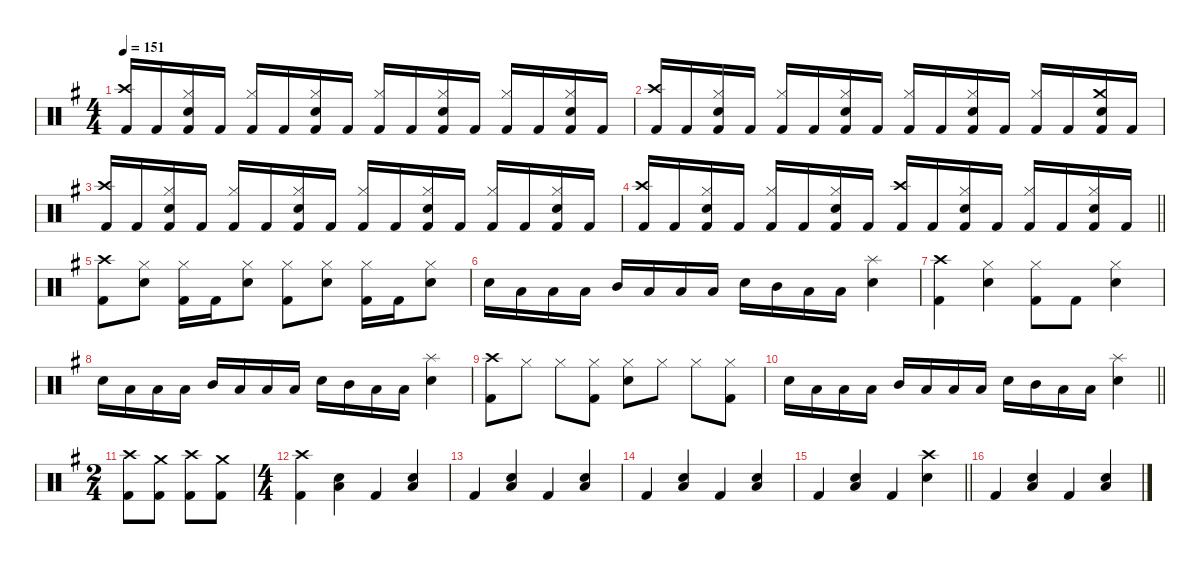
\defaultSystemsLayout 4
\hideDynamics
\bracketExtendMode nobrackets
\singleTrackTrackNamePolicy hidden
\multiTrackTrackNamePolicy hidden
\otherSystemsTrackNameOrientation horizontal
\track ("Lars Ulrich" "drm.") {instrument percussion}
\staff {score}
\articulation defaults
\ts (4 4)
\tempo 151
\clef neutral
\ks eminor
("Crash high (hit)"{acc forcenatural} "Kick (hit) 2"{acc forcenatural}).16{dy f beam Up} "Kick (hit) 2"{acc forcenatural}.16{beam Up} ("Hi-Hat (closed)"{acc forcenatural} "Snare (hit) 2"{acc forcenatural} "Kick (hit) 2"{acc forcenatural}).16{beam Up} "Kick (hit) 2"{acc forcenatural}.16{beam Up} ("Hi-Hat (closed)"{acc forcenatural} "Kick (hit) 2"{acc forcenatural}).16{beam Up} "Kick (hit) 2"{acc forcenatural}.16{beam Up} ("Hi-Hat (closed)"{acc forcenatural} "Snare (hit) 2"{acc forcenatural} "Kick (hit) 2"{acc forcenatural}).16{beam Up} "Kick (hit) 2"{acc forcenatural}.16{beam Up} ("Hi-Hat (closed)"{acc forcenatural} "Kick (hit) 2"{acc forcenatural}).16{beam Up} "Kick (hit) 2"{acc forcenatural}.16{beam Up} ("Hi-Hat (closed)"{acc forcenatural} "Snare (hit) 2"{acc forcenatural} "Kick (hit) 2"{acc forcenatural}).16{beam Up} "Kick (hit) 2"{acc forcenatural}.16{beam Up} ("Hi-Hat (closed)"{acc forcenatural} "Kick (hit) 2"{acc forcenatural}).16{beam Up} "Kick (hit) 2"{acc forcenatural}.16{beam Up} ("Hi-Hat (closed)"{acc forcenatural} "Snare (hit) 2"{acc forcenatural} "Kick (hit) 2"{acc forcenatural}).16{beam Up} "Kick (hit) 2"{acc forcenatural}.16{beam Up} |
("Crash high (hit)"{acc forcenatural} "Kick (hit) 2"{acc forcenatural}).16{beam Up} "Kick (hit) 2"{acc forcenatural}.16{beam Up} ("Hi-Hat (closed)"{acc forcenatural} "Snare (hit) 2"{acc forcenatural} "Kick (hit) 2"{acc forcenatural}).16{beam Up} "Kick (hit) 2"{acc forcenatural}.16{beam Up} ("Hi-Hat (closed)"{acc forcenatural} "Kick (hit) 2"{acc forcenatural}).16{beam Up} "Kick (hit) 2"{acc forcenatural}.16{beam Up} ("Hi-Hat (closed)"{acc forcenatural} "Snare (hit) 2"{acc forcenatural} "Kick (hit) 2"{acc forcenatural}).16{beam Up} "Kick (hit) 2"{acc forcenatural}.16{beam Up} ("Hi-Hat (closed)"{acc forcenatural} "Kick (hit) 2"{acc forcenatural}).16{beam Up} "Kick (hit) 2"{acc forcenatural}.16{beam Up} ("Hi-Hat (closed)"{acc forcenatural} "Snare (hit) 2"{acc forcenatural} "Kick (hit) 2"{acc forcenatural}).16{beam Up} "Kick (hit) 2"{acc forcenatural}.16{beam Up} ("Hi-Hat (closed)"{acc forcenatural} "Kick (hit) 2"{acc forcenatural}).16{beam Up} "Kick (hit) 2"{acc forcenatural}.16{beam Up} ("Crash medium (hit)"{acc forcenatural} "Snare (hit) 2"{acc forcenatural} "Kick (hit) 2"{acc forcenatural}).16{beam Up} "Kick (hit) 2"{acc forcenatural}.16{beam Up} |
("Crash high (hit)"{acc forcenatural} "Kick (hit) 2"{acc forcenatural}).16{beam Up} "Kick (hit) 2"{acc forcenatural}.16{beam Up} ("Hi-Hat (closed)"{acc forcenatural} "Snare (hit) 2"{acc forcenatural} "Kick (hit) 2"{acc forcenatural}).16{beam Up} "Kick (hit) 2"{acc forcenatural}.16{beam Up} ("Hi-Hat (closed)"{acc forcenatural} "Kick (hit) 2"{acc forcenatural}).16{beam Up} "Kick (hit) 2"{acc forcenatural}.16{beam Up} ("Hi-Hat (closed)"{acc forcenatural} "Snare (hit) 2"{acc forcenatural} "Kick (hit) 2"{acc forcenatural}).16{beam Up} "Kick (hit) 2"{acc forcenatural}.16{beam Up} ("Hi-Hat (closed)"{acc forcenatural} "Kick (hit) 2"{acc forcenatural}).16{beam Up} "Kick (hit) 2"{acc forcenatural}.16{beam Up} ("Hi-Hat (closed)"{acc forcenatural} "Snare (hit) 2"{acc forcenatural} "Kick (hit) 2"{acc forcenatural}).16{beam Up} "Kick (hit) 2"{acc forcenatural}.16{beam Up} ("Hi-Hat (closed)"{acc forcenatural} "Kick (hit) 2"{acc forcenatural}).16{beam Up} "Kick (hit) 2"{acc forcenatural}.16{beam Up} ("Hi-Hat (closed)"{acc forcenatural} "Snare (hit) 2"{acc forcenatural} "Kick (hit) 2"{acc forcenatural}).16{beam Up} "Kick (hit) 2"{acc forcenatural}.16{beam Up} |
\barLineRight lightlight
("Crash high (hit)"{acc forcenatural} "Kick (hit) 2"{acc forcenatural}).16{beam Up} "Kick (hit) 2"{acc forcenatural}.16{beam Up} ("Hi-Hat (closed)"{acc forcenatural} "Snare (hit) 2"{acc forcenatural} "Kick (hit) 2"{acc forcenatural}).16{beam Up} "Kick (hit) 2"{acc forcenatural}.16{beam Up} ("Hi-Hat (closed)"{acc forcenatural} "Kick (hit) 2"{acc forcenatural}).16{beam Up} "Kick (hit) 2"{acc forcenatural}.16{beam Up} ("Hi-Hat (closed)"{acc forcenatural} "Snare (hit) 2"{acc forcenatural} "Kick (hit) 2"{acc forcenatural}).16{beam Up} "Kick (hit) 2"{acc forcenatural}.16{beam Up} ("Crash high (hit)"{acc forcenatural} "Kick (hit) 2"{acc forcenatural}).16{beam Up} "Kick (hit) 2"{acc forcenatural}.16{beam Up} ("Hi-Hat (closed)"{acc forcenatural} "Snare (hit) 2"{acc forcenatural} "Kick (hit) 2"{acc forcenatural}).16{beam Up} "Kick (hit) 2"{acc forcenatural}.16{beam Up} ("Hi-Hat (closed)"{acc forcenatural} "Kick (hit) 2"{acc forcenatural}).16{beam Up} "Kick (hit) 2"{acc forcenatural}.16{beam Up} ("Hi-Hat (closed)"{acc forcenatural} "Snare (hit) 2"{acc forcenatural} "Kick (hit) 2"{acc forcenatural}).16{beam Up} "Kick (hit) 2"{acc forcenatural}.16{beam Up} |
("Crash high (hit)"{acc forcenatural} "Kick (hit) 2"{acc forcenatural}).8{beam Down} ("Hi-Hat (closed)"{acc forcenatural} "Snare (hit) 2"{acc forcenatural}).8{beam Down} ("Hi-Hat (closed)"{acc forcenatural} "Kick (hit) 2"{acc forcenatural}).16{beam Down} "Kick (hit) 2"{acc forcenatural}.16{beam Down} ("Hi-Hat (closed)"{acc forcenatural} "Snare (hit) 2"{acc forcenatural}).8{beam Down} ("Hi-Hat (closed)"{acc forcenatural} "Kick (hit) 2"{acc forcenatural}).8{beam Down} ("Hi-Hat (closed)"{acc forcenatural} "Snare (hit) 2"{acc forcenatural}).8{beam Down} ("Hi-Hat (closed)"{acc forcenatural} "Kick (hit) 2"{acc forcenatural}).16{beam Down} "Kick (hit) 2"{acc forcenatural}.16{beam Down} ("Hi-Hat (closed)"{acc forcenatural} "Snare (hit) 2"{acc forcenatural}).8{beam Down} |
"Snare (hit) 2"{acc forcenatural}.16{beam Down} "Low Tom (hit)"{acc forcenatural}.16{beam Down} "Low Tom (hit)"{acc forcenatural}.16{beam Down} "Low Tom (hit)"{acc forcenatural}.16{beam Down} "Mid Tom (hit)"{acc forcenatural}.16{beam Up} "Low Tom (hit)"{acc forcenatural}.16{beam Up} "Low Tom (hit)"{acc forcenatural}.16{beam Up} "Low Tom (hit)"{acc forcenatural}.16{beam Up} "Snare (hit) 2"{acc forcenatural}.16{beam Down} "Mid Tom (hit)"{acc forcenatural}.16{beam Down} "Low Tom (hit)"{acc forcenatural}.16{beam Down} "Low Tom (hit)"{acc forcenatural}.16{beam Down} ("Splash (hit)"{acc forcenatural} "Snare (hit) 2"{acc forcenatural}).4{beam Down} |
("Crash high (hit)"{acc forcenatural} "Kick (hit) 2"{acc forcenatural}).4{beam Down} ("Hi-Hat (closed)"{acc forcenatural} "Snare (hit) 2"{acc forcenatural}).4{beam Down} ("Hi-Hat (closed)"{acc forcenatural} "Kick (hit) 2"{acc forcenatural}).8{beam Down} "Kick (hit) 2"{acc forcenatural}.8{beam Down} ("Hi-Hat (closed)"{acc forcenatural} "Snare (hit) 2"{acc forcenatural}).4{beam Down} |
"Snare (hit) 2"{acc forcenatural}.16{beam Down} "Low Tom (hit)"{acc forcenatural}.16{beam Down} "Low Tom (hit)"{acc forcenatural}.16{beam Down} "Low Tom (hit)"{acc forcenatural}.16{beam Down} "Mid Tom (hit)"{acc forcenatural}.16{beam Up} "Low Tom (hit)"{acc forcenatural}.16{beam Up} "Low Tom (hit)"{acc forcenatural}.16{beam Up} "Low Tom (hit)"{acc forcenatural}.16{beam Up} "Snare (hit) 2"{acc forcenatural}.16{beam Down} "Mid Tom (hit)"{acc forcenatural}.16{beam Down} "Low Tom (hit)"{acc forcenatural}.16{beam Down} "Low Tom (hit)"{acc forcenatural}.16{beam Down} ("Splash (hit)"{acc forcenatural} "Snare (hit) 2"{acc forcenatural}).4{beam Down} |
("Crash high (hit)"{acc forcenatural} "Kick (hit) 2"{acc forcenatural}).8{beam Down} "Hi-Hat (closed)"{acc forcenatural}.8{beam Down} "Hi-Hat (closed)"{acc forcenatural}.8{beam Down} ("Hi-Hat (closed)"{acc forcenatural} "Kick (hit) 2"{acc forcenatural}).8{beam Down} ("Hi-Hat (closed)"{acc forcenatural} "Snare (hit) 2"{acc forcenatural}).8{beam Down} "Hi-Hat (closed)"{acc forcenatural}.8{beam Down} "Hi-Hat (closed)"{acc forcenatural}.8{beam Down} ("Hi-Hat (closed)"{acc forcenatural} "Kick (hit) 2"{acc forcenatural}).8{beam Down} |
\barLineRight lightlight "Snare (hit) 2"{acc forcenatural}.16{beam Down} "Low Tom (hit)"{acc forcenatural}.16{beam Down} "Low Tom (hit)"{acc forcenatural}.16{beam Down} "Low Tom (hit)"{acc forcenatural}.16{beam Down} "Mid Tom (hit)"{acc forcenatural}.16{beam Up} "Low Tom (hit)"{acc forcenatural}.16{beam Up} "Low Tom (hit)"{acc forcenatural}.16{beam Up} "Low Tom (hit)"{acc forcenatural}.16{beam Up} "Snare (hit) 2"{acc forcenatural}.16{beam Down} "Mid Tom (hit)"{acc forcenatural}.16{beam Down} "Low Tom (hit)"{acc forcenatural}.16{beam Down} "Low Tom (hit)"{acc forcenatural}.16{beam Down}
("Splash (hit)"{acc forcenatural} "Snare (hit) 2"{acc forcenatural}).4{beam Down} |
\ts (2 4)
\beaming (8 2 2)
("Crash high (hit)"{acc forcenatural} "Kick (hit) 2"{acc forcenatural}).8{beam Down} ("Crash medium (hit)"{acc forcenatural} "Kick (hit) 2"{acc forcenatural}).8{beam Down} ("Crash high (hit)"{acc forcenatural} "Kick (hit) 2"{acc forcenatural}).8{beam Down} ("Crash medium (hit)"{acc forcenatural} "Kick (hit) 2"{acc forcenatural}).8{beam Down} |
\ts (4 4)
\beaming (8 2 2 2 2)
("Crash high (hit)"{acc forcenatural} "Kick (hit) 2"{acc forcenatural}).4{beam Down} ("Low Floor Tom (hit)"{acc forcenatural} "Snare (hit) 2"{acc forcenatural}).4{beam Down} "Kick (hit) 2"{acc forcenatural}.4{beam Up} ("Low Floor Tom (hit)"{acc forcenatural} "Snare (hit) 2"{acc forcenatural}).4{beam Up} |
"Kick (hit) 2"{acc forcenatural}.4{beam Up} ("Low Floor Tom (hit)"{acc forcenatural} "Snare (hit) 2"{acc forcenatural}).4{beam Up} "Kick (hit) 2"{acc forcenatural}.4{beam Up} ("Low Floor Tom (hit)"{acc forcenatural} "Snare (hit) 2"{acc forcenatural}).4{beam Up} |
"Kick (hit) 2"{acc forcenatural}.4{beam Up} ("Low Floor Tom (hit)"{acc forcenatural} "Snare (hit) 2"{acc forcenatural}).4{beam Up} "Kick (hit) 2"{acc forcenatural}.4{beam Up} ("Low Floor Tom (hit)"{acc forcenatural} "Snare (hit) 2"{acc forcenatural}).4{beam Up} |
\barLineRight lightlight "Kick (hit) 2"{acc forcenatural}.4{beam Up}
("Low Floor Tom (hit)"{acc forcenatural} "Snare (hit) 2"{acc forcenatural}).4{beam Up} "Kick (hit) 2"{acc forcenatural}.4{beam Up} ("Crash high (hit)"{acc forcenatural} "Snare (hit) 2"{acc forcenatural}).4{beam Down} |
"Kick (hit) 2"{acc forcenatural}.4{beam Up} ("Low Floor Tom (hit)"{acc forcenatural} "Snare (hit) 2"{acc forcenatural}).4{beam Up} "Kick (hit) 2"{acc forcenatural}.4{beam Up} ("Low Floor Tom (hit)"{acc forcenatural} "Snare (hit) 2"{acc forcenatural}).4{beam Up}
